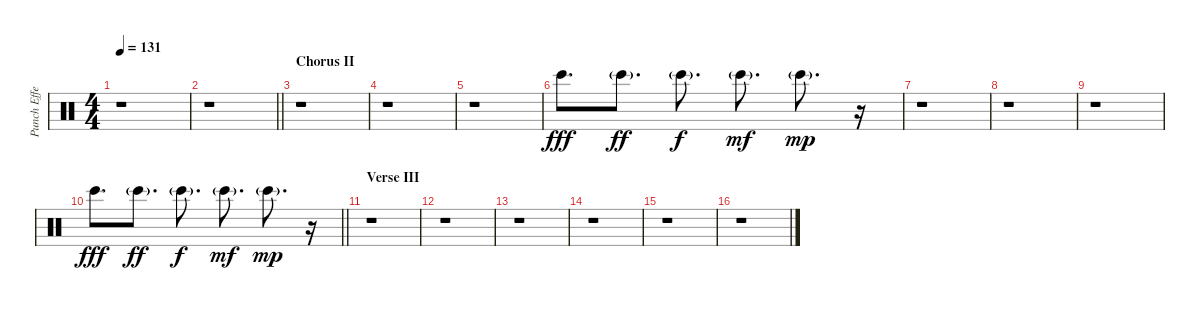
\track ("Punch Effect" "Punch Effe") {instrument percussion}
\staff {score}
\articulation defaults
\ts (4 4)
\tempo 131
\clef neutral
\ks c
r.1{dy mp} |
\barLineRight lightlight
r.1 |
\section ("" "Chorus II")
r.1 |
r.1 |
r.1 |
"Bongo High (hit)".8{d dy fff} "Bongo High (hit)"{g}.8{d dy ff} "Bongo High (hit)"{g}.8{d dy f} "Bongo High (hit)"{g}.8{d dy mf} "Bongo High (hit)"{g}.8{d dy mp} r.16 |
r.1 |
r.1 |
r.1 |
\barLineRight lightlight "Bongo High (hit)".8{d dy fff} "Bongo High (hit)"{g}.8{d dy ff} "Bongo High (hit)"{g}.8{d dy f} "Bongo High (hit)"{g}.8{d dy mf} "Bongo High (hit)"{g}.8{d dy mp}
r.16 |
\section ("" "Verse III")
r.1 |
r.1 |
r.1 |
r.1 |
r.1 |
r.1
